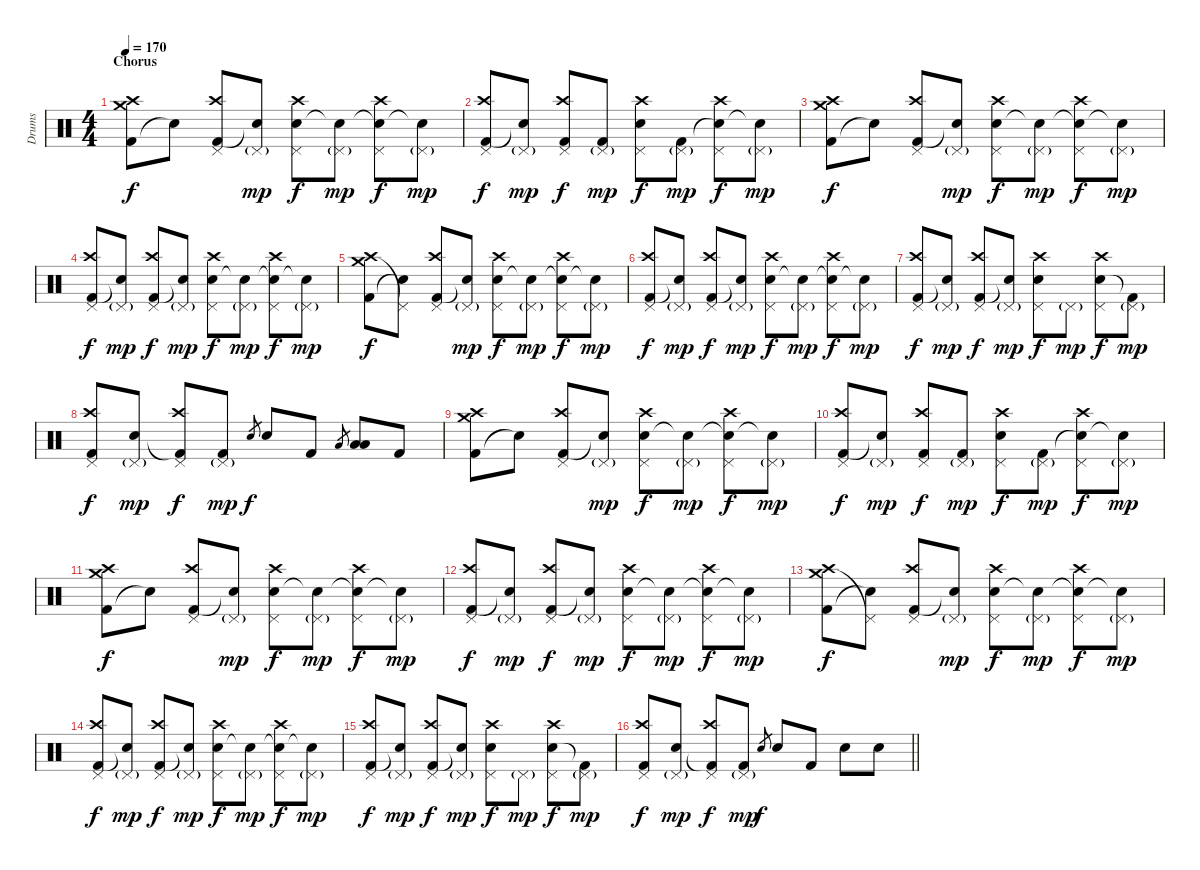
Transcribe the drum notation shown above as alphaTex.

\track ("Drums" "Drums") {instrument percussion}
\staff {score}
\articulation defaults
\ts (4 4)
\section ("" "Chorus")
\tempo 170
\clef neutral
\ks c
("Kick (hit) 2" "Crash medium (hit)" "Crash high (hit)").8{dy f} "Snare (hit)"{t}.8 ("Kick (hit) 2" "Pedal Hi-Hat (hit)" "Crash high (hit)").8 ("Snare (hit)"{t} "Pedal Hi-Hat (hit)"{g}).8{dy mp} ("Electric Snare (hit)" "Pedal Hi-Hat (hit)" "Crash high (hit)").8{dy f} ("Snare (hit)"{t} "Pedal Hi-Hat (hit)"{g}).8{dy mp} ("Snare (hit)"{t} "Pedal Hi-Hat (hit)" "Crash high (hit)").8{dy f} ("Snare (hit)"{t} "Pedal Hi-Hat (hit)"{g}).8{dy mp} |
("Kick (hit) 2" "Pedal Hi-Hat (hit)" "Crash high (hit)").8{dy f} ("Snare (hit)"{t} "Pedal Hi-Hat (hit)"{g}).8{dy mp} ("Kick (hit) 2" "Pedal Hi-Hat (hit)" "Crash high (hit)").8{dy f} ("Kick (hit) 2" "Pedal Hi-Hat (hit)"{g}).8{dy mp} ("Electric Snare (hit)" "Pedal Hi-Hat (hit)" "Crash high (hit)").8{dy f} ("Kick (hit) 2" "Pedal Hi-Hat (hit)"{g}).8{dy mp} ("Snare (hit)"{t} "Pedal Hi-Hat (hit)" "Crash high (hit)").8{dy f} ("Snare (hit)"{t} "Pedal Hi-Hat (hit)"{g}).8{dy mp} |
("Kick (hit) 2" "Crash medium (hit)" "Crash high (hit)").8{dy f} "Snare (hit)"{t}.8 ("Kick (hit) 2" "Pedal Hi-Hat (hit)" "Crash high (hit)").8 ("Snare (hit)"{t} "Pedal Hi-Hat (hit)"{g}).8{dy mp} ("Electric Snare (hit)" "Pedal Hi-Hat (hit)" "Crash high (hit)").8{dy f} ("Snare (hit)"{t} "Pedal Hi-Hat (hit)"{g}).8{dy mp} ("Snare (hit)"{t} "Pedal Hi-Hat (hit)" "Crash high (hit)").8{dy f} ("Snare (hit)"{t} "Pedal Hi-Hat (hit)"{g}).8{dy mp} |
("Kick (hit) 2" "Pedal Hi-Hat (hit)" "Crash high (hit)").8{dy f} ("Snare (hit)"{t} "Pedal Hi-Hat (hit)"{g}).8{dy mp} ("Kick (hit) 2" "Pedal Hi-Hat (hit)" "Crash high (hit)").8{dy f} ("Snare (hit)"{t} "Pedal Hi-Hat (hit)"{g}).8{dy mp} ("Electric Snare (hit)" "Pedal Hi-Hat (hit)" "Crash high (hit)").8{dy f} ("Snare (hit)"{t} "Pedal Hi-Hat (hit)"{g}).8{dy mp} ("Snare (hit)"{t} "Pedal Hi-Hat (hit)" "Crash high (hit)").8{dy f} ("Snare (hit)"{t} "Pedal Hi-Hat (hit)"{g}).8{dy mp} |
("Kick (hit) 2" "Crash medium (hit)" "Crash high (hit)").8{dy f} ("Snare (hit)"{t} "Pedal Hi-Hat (hit)"{t}).8 ("Kick (hit) 2" "Pedal Hi-Hat (hit)" "Crash high (hit)").8 ("Snare (hit)"{t} "Pedal Hi-Hat (hit)"{g}).8{dy mp} ("Electric Snare (hit)" "Pedal Hi-Hat (hit)" "Crash high (hit)").8{dy f} ("Snare (hit)"{t} "Pedal Hi-Hat (hit)"{g}).8{dy mp} ("Snare (hit)"{t} "Pedal Hi-Hat (hit)" "Crash high (hit)").8{dy f} ("Snare (hit)"{t} "Pedal Hi-Hat (hit)"{g}).8{dy mp} |
("Kick (hit) 2" "Pedal Hi-Hat (hit)" "Crash high (hit)").8{dy f} ("Snare (hit)"{t} "Pedal Hi-Hat (hit)"{g}).8{dy mp} ("Kick (hit) 2" "Pedal Hi-Hat (hit)" "Crash high (hit)").8{dy f} ("Snare (hit)"{t} "Pedal Hi-Hat (hit)"{g}).8{dy mp} ("Electric Snare (hit)" "Pedal Hi-Hat (hit)" "Crash high (hit)").8{dy f} ("Snare (hit)"{t} "Pedal Hi-Hat (hit)"{g}).8{dy mp} ("Snare (hit)"{t} "Pedal Hi-Hat (hit)" "Crash high (hit)").8{dy f} ("Snare (hit)"{t} "Pedal Hi-Hat (hit)"{g}).8{dy mp} |
("Kick (hit) 2" "Pedal Hi-Hat (hit)" "Crash high (hit)").8{dy f} ("Snare (hit)"{t} "Pedal Hi-Hat (hit)"{g}).8{dy mp} ("Kick (hit) 2" "Pedal Hi-Hat (hit)" "Crash high (hit)").8{dy f} ("Snare (hit)"{t} "Pedal Hi-Hat (hit)"{g}).8{dy mp} ("Electric Snare (hit)" "Pedal Hi-Hat (hit)" "Crash high (hit)").8{dy f} "Pedal Hi-Hat (hit)"{g}.8{dy mp} ("Electric Snare (hit)" "Pedal Hi-Hat (hit)" "Crash high (hit)").8{dy f} ("Kick (hit) 2"{t} "Pedal Hi-Hat (hit)"{g}).8{dy mp} |
("Kick (hit) 2" "Pedal Hi-Hat (hit)" "Crash high (hit)").8{dy f} ("Electric Snare (hit)" "Pedal Hi-Hat (hit)"{g}).8{dy mp} ("Kick (hit) 2"{t} "Pedal Hi-Hat (hit)" "Crash high (hit)").8{dy f} ("Kick (hit) 2" "Pedal Hi-Hat (hit)"{g}).8{dy mp} "Electric Snare (hit)".8{gr dy f} "Electric Snare (hit)".8 "Kick (hit) 2".8 "Low Tom (hit)".8{gr} ("Low Tom (hit)" "Low Floor Tom (hit)").8 "Kick (hit) 2".8 |
("Kick (hit) 2" "Crash medium (hit)" "Crash high (hit)").8 "Snare (hit)"{t}.8 ("Kick (hit) 2" "Pedal Hi-Hat (hit)" "Crash high (hit)").8 ("Snare (hit)"{t} "Pedal Hi-Hat (hit)"{g}).8{dy mp} ("Electric Snare (hit)" "Pedal Hi-Hat (hit)" "Crash high (hit)").8{dy f} ("Snare (hit)"{t} "Pedal Hi-Hat (hit)"{g}).8{dy mp} ("Snare (hit)"{t} "Pedal Hi-Hat (hit)" "Crash high (hit)").8{dy f} ("Snare (hit)"{t} "Pedal Hi-Hat (hit)"{g}).8{dy mp} |
("Kick (hit) 2" "Pedal Hi-Hat (hit)" "Crash high (hit)").8{dy f} ("Snare (hit)"{t} "Pedal Hi-Hat (hit)"{g}).8{dy mp} ("Kick (hit) 2" "Pedal Hi-Hat (hit)" "Crash high (hit)").8{dy f} ("Kick (hit) 2" "Pedal Hi-Hat (hit)"{g}).8{dy mp} ("Electric Snare (hit)" "Pedal Hi-Hat (hit)" "Crash high (hit)").8{dy f} ("Kick (hit) 2" "Pedal Hi-Hat (hit)"{g}).8{dy mp} ("Snare (hit)"{t} "Pedal Hi-Hat (hit)" "Crash high (hit)").8{dy f} ("Snare (hit)"{t} "Pedal Hi-Hat (hit)"{g}).8{dy mp} |
("Kick (hit) 2" "Crash medium (hit)" "Crash high (hit)").8{dy f} "Snare (hit)"{t}.8 ("Kick (hit) 2" "Pedal Hi-Hat (hit)" "Crash high (hit)").8 ("Snare (hit)"{t} "Pedal Hi-Hat (hit)"{g}).8{dy mp} ("Electric Snare (hit)" "Pedal Hi-Hat (hit)" "Crash high (hit)").8{dy f} ("Snare (hit)"{t} "Pedal Hi-Hat (hit)"{g}).8{dy mp} ("Snare (hit)"{t} "Pedal Hi-Hat (hit)" "Crash high (hit)").8{dy f} ("Snare (hit)"{t} "Pedal Hi-Hat (hit)"{g}).8{dy mp} |
("Kick (hit) 2" "Pedal Hi-Hat (hit)" "Crash high (hit)").8{dy f} ("Snare (hit)"{t} "Pedal Hi-Hat (hit)"{g}).8{dy mp} ("Kick (hit) 2" "Pedal Hi-Hat (hit)" "Crash high (hit)").8{dy f} ("Snare (hit)"{t} "Pedal Hi-Hat (hit)"{g}).8{dy mp} ("Electric Snare (hit)" "Pedal Hi-Hat (hit)" "Crash high (hit)").8{dy f} ("Snare (hit)"{t} "Pedal Hi-Hat (hit)"{g}).8{dy mp} ("Snare (hit)"{t} "Pedal Hi-Hat (hit)" "Crash high (hit)").8{dy f} ("Snare (hit)"{t} "Pedal Hi-Hat (hit)"{g}).8{dy mp} |
("Kick (hit) 2" "Crash medium (hit)" "Crash high (hit)").8{dy f} ("Snare (hit)"{t} "Pedal Hi-Hat (hit)"{t}).8 ("Kick (hit) 2" "Pedal Hi-Hat (hit)" "Crash high (hit)").8 ("Snare (hit)"{t} "Pedal Hi-Hat (hit)"{g}).8{dy mp} ("Electric Snare (hit)" "Pedal Hi-Hat (hit)" "Crash high (hit)").8{dy f} ("Snare (hit)"{t} "Pedal Hi-Hat (hit)"{g}).8{dy mp} ("Snare (hit)"{t} "Pedal Hi-Hat (hit)" "Crash high (hit)").8{dy f} ("Snare (hit)"{t} "Pedal Hi-Hat (hit)"{g}).8{dy mp} |
("Kick (hit) 2" "Pedal Hi-Hat (hit)" "Crash high (hit)").8{dy f} ("Snare (hit)"{t} "Pedal Hi-Hat (hit)"{g}).8{dy mp} ("Kick (hit) 2" "Pedal Hi-Hat (hit)" "Crash high (hit)").8{dy f} ("Snare (hit)"{t} "Pedal Hi-Hat (hit)"{g}).8{dy mp} ("Electric Snare (hit)" "Pedal Hi-Hat (hit)" "Crash high (hit)").8{dy f} ("Snare (hit)"{t} "Pedal Hi-Hat (hit)"{g}).8{dy mp} ("Snare (hit)"{t} "Pedal Hi-Hat (hit)" "Crash high (hit)").8{dy f} ("Snare (hit)"{t} "Pedal Hi-Hat (hit)"{g}).8{dy mp} |
("Kick (hit) 2" "Pedal Hi-Hat (hit)" "Crash high (hit)").8{dy f} ("Snare (hit)"{t} "Pedal Hi-Hat (hit)"{g}).8{dy mp} ("Kick (hit) 2" "Pedal Hi-Hat (hit)" "Crash high (hit)").8{dy f} ("Snare (hit)"{t} "Pedal Hi-Hat (hit)"{g}).8{dy mp} ("Electric Snare (hit)" "Pedal Hi-Hat (hit)" "Crash high (hit)").8{dy f} "Pedal Hi-Hat (hit)"{g}.8{dy mp} ("Electric Snare (hit)" "Pedal Hi-Hat (hit)" "Crash high (hit)").8{dy f} ("Kick (hit) 2"{t} "Pedal Hi-Hat (hit)"{g}).8{dy mp} |
\barLineRight lightlight
("Kick (hit) 2" "Pedal Hi-Hat (hit)" "Crash high (hit)").8{dy f} ("Electric Snare (hit)" "Pedal Hi-Hat (hit)"{g}).8{dy mp} ("Kick (hit) 2"{t} "Pedal Hi-Hat (hit)" "Crash high (hit)").8{dy f} ("Kick (hit) 2" "Pedal Hi-Hat (hit)"{g}).8{dy mp} "Electric Snare (hit)".8{gr dy f} "Electric Snare (hit)".8 "Kick (hit) 2".8 "Electric Snare (hit)".8 "Electric Snare (hit)".8
